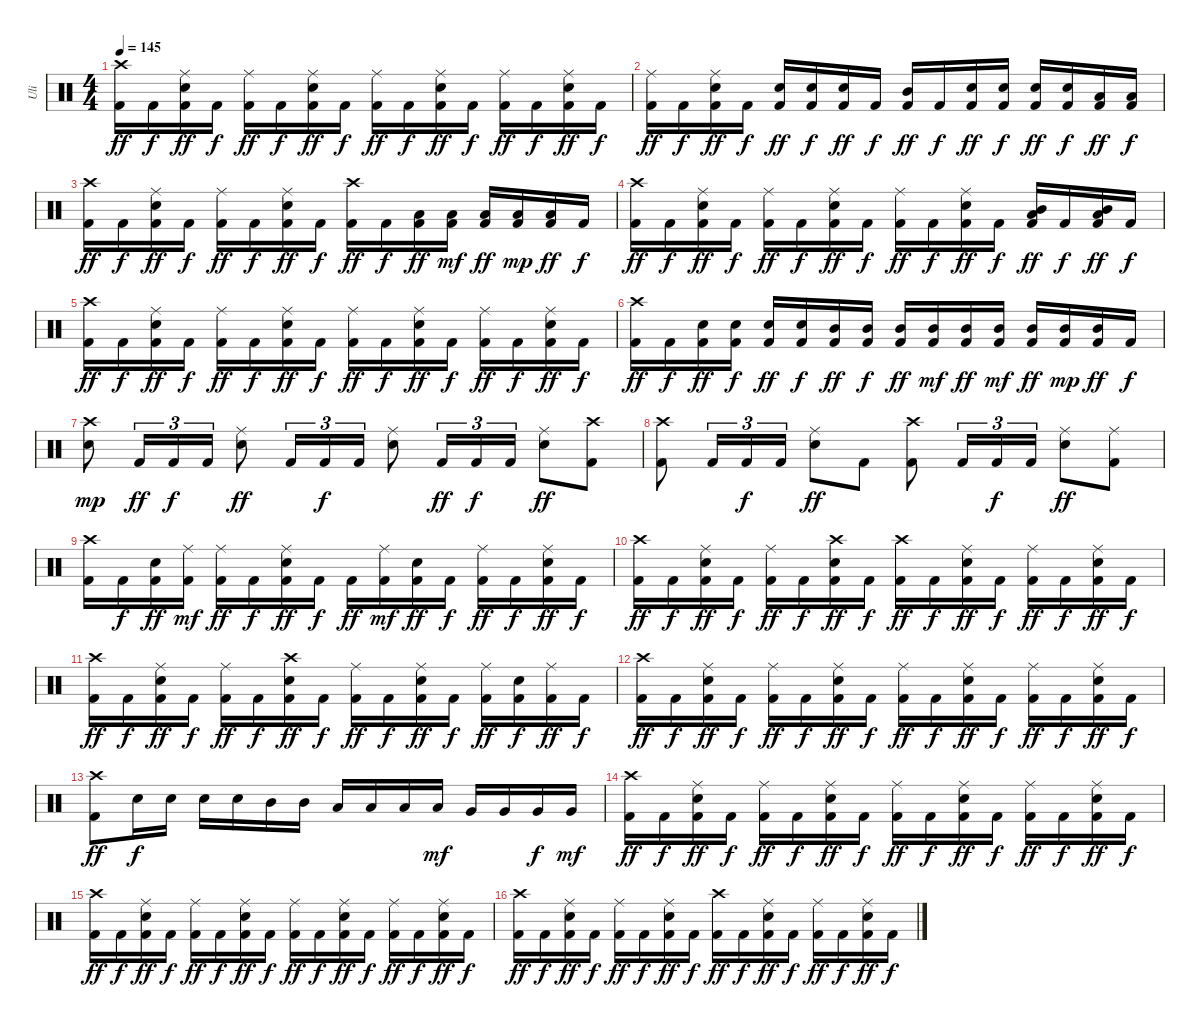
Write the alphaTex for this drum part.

\track ("Uli" "Uli") {instrument percussion}
\staff {score}
\articulation defaults
\ts (4 4)
\tempo 145
\clef neutral
\ks c
("Crash high (hit)" "Kick (hit) 2").16{dy ff} "Kick (hit) 2".16{dy f} ("Ride (middle)" "Electric Snare (hit)" "Kick (hit) 2").16{dy ff} "Kick (hit) 2".16{dy f} ("Ride (middle)" "Kick (hit) 2").16{dy ff} "Kick (hit) 2".16{dy f} ("Ride (middle)" "Electric Snare (hit)" "Kick (hit) 2").16{dy ff} "Kick (hit) 2".16{dy f} ("Ride (middle)" "Kick (hit) 2").16{dy ff} "Kick (hit) 2".16{dy f} ("Ride (middle)" "Electric Snare (hit)" "Kick (hit) 2").16{dy ff} "Kick (hit) 2".16{dy f} ("Ride (middle)" "Kick (hit) 2").16{dy ff} "Kick (hit) 2".16{dy f} ("Ride (middle)" "Electric Snare (hit)" "Kick (hit) 2").16{dy ff} "Kick (hit) 2".16{dy f} |
("Ride (middle)" "Kick (hit) 2").16{dy ff} "Kick (hit) 2".16{dy f} ("Ride (middle)" "Electric Snare (hit)" "Kick (hit) 2").16{dy ff} "Kick (hit) 2".16{dy f} ("Electric Snare (hit)" "Kick (hit) 2").16{dy ff} ("Electric Snare (hit)" "Kick (hit) 2").16{dy f} ("Electric Snare (hit)" "Kick (hit) 2").16{dy ff} "Kick (hit) 2".16{dy f} ("Mid Tom (hit)" "Kick (hit) 2").16{dy ff} "Kick (hit) 2".16{dy f} ("Electric Snare (hit)" "Kick (hit) 2").16{dy ff} ("Electric Snare (hit)" "Kick (hit) 2").16{dy f} ("Electric Snare (hit)" "Kick (hit) 2").16{dy ff} ("Electric Snare (hit)" "Kick (hit) 2").16{dy f} ("Low Tom (hit)" "Kick (hit) 2").16{dy ff} ("Low Tom (hit)" "Kick (hit) 2").16{dy f} |
("Crash high (hit)" "Kick (hit) 2").16{dy ff} "Kick (hit) 2".16{dy f} ("Ride (middle)" "Electric Snare (hit)" "Kick (hit) 2").16{dy ff} "Kick (hit) 2".16{dy f} ("Ride (middle)" "Kick (hit) 2").16{dy ff} "Kick (hit) 2".16{dy f} ("Ride (middle)" "Electric Snare (hit)" "Kick (hit) 2").16{dy ff} "Kick (hit) 2".16{dy f} ("Crash high (hit)" "Kick (hit) 2").16{dy ff} "Kick (hit) 2".16{dy f} ("Low Tom (hit)" "Kick (hit) 2").16{dy ff} ("Low Tom (hit)" "Kick (hit) 2").16{dy mf} ("Low Tom (hit)" "Kick (hit) 2").16{dy ff} ("Low Tom (hit)" "Kick (hit) 2").16{dy mp} ("Low Tom (hit)" "Kick (hit) 2").16{dy ff} "Kick (hit) 2".16{dy f} |
("Crash high (hit)" "Kick (hit) 2").16{dy ff} "Kick (hit) 2".16{dy f} ("Ride (middle)" "Electric Snare (hit)" "Kick (hit) 2").16{dy ff} "Kick (hit) 2".16{dy f} ("Ride (middle)" "Kick (hit) 2").16{dy ff} "Kick (hit) 2".16{dy f} ("Ride (middle)" "Electric Snare (hit)" "Kick (hit) 2").16{dy ff} "Kick (hit) 2".16{dy f} ("Ride (middle)" "Kick (hit) 2").16{dy ff} "Kick (hit) 2".16{dy f} ("Ride (middle)" "Electric Snare (hit)" "Kick (hit) 2").16{dy ff} "Kick (hit) 2".16{dy f} ("Low Tom (hit)" "Kick (hit) 2" "Mid Tom (hit)").16{dy ff} "Kick (hit) 2".16{dy f} ("Low Tom (hit)" "Kick (hit) 2" "Mid Tom (hit)").16{dy ff} "Kick (hit) 2".16{dy f} |
("Crash high (hit)" "Kick (hit) 2").16{dy ff} "Kick (hit) 2".16{dy f} ("Ride (middle)" "Electric Snare (hit)" "Kick (hit) 2").16{dy ff} "Kick (hit) 2".16{dy f} ("Ride (middle)" "Kick (hit) 2").16{dy ff} "Kick (hit) 2".16{dy f} ("Ride (middle)" "Electric Snare (hit)" "Kick (hit) 2").16{dy ff} "Kick (hit) 2".16{dy f} ("Ride (middle)" "Kick (hit) 2").16{dy ff} "Kick (hit) 2".16{dy f} ("Ride (middle)" "Electric Snare (hit)" "Kick (hit) 2").16{dy ff} "Kick (hit) 2".16{dy f} ("Ride (middle)" "Kick (hit) 2").16{dy ff} "Kick (hit) 2".16{dy f} ("Ride (middle)" "Electric Snare (hit)" "Kick (hit) 2").16{dy ff} "Kick (hit) 2".16{dy f} |
("Crash high (hit)" "Kick (hit) 2").16{dy ff} "Kick (hit) 2".16{dy f} ("Electric Snare (hit)" "Kick (hit) 2").16{dy ff} ("Electric Snare (hit)" "Kick (hit) 2").16{dy f} ("Electric Snare (hit)" "Kick (hit) 2").16{dy ff} ("Electric Snare (hit)" "Kick (hit) 2").16{dy f} ("Mid Tom (hit)" "Kick (hit) 2").16{dy ff} ("Mid Tom (hit)" "Kick (hit) 2").16{dy f} ("Mid Tom (hit)" "Kick (hit) 2").16{dy ff} ("Mid Tom (hit)" "Kick (hit) 2").16{dy mf} ("Mid Tom (hit)" "Kick (hit) 2").16{dy ff} ("Mid Tom (hit)" "Kick (hit) 2").16{dy mf} ("Mid Tom (hit)" "Kick (hit) 2").16{dy ff} ("Mid Tom (hit)" "Kick (hit) 2").16{dy mp} ("Mid Tom (hit)" "Kick (hit) 2").16{dy ff} "Kick (hit) 2".16{dy f} |
("Crash high (hit)" "Electric Snare (hit)").8{dy mp} "Kick (hit) 2".16{tu (3 2) dy ff} "Kick (hit) 2".16{tu (3 2) dy f} "Kick (hit) 2".16{tu (3 2)} ("Ride (middle)" "Electric Snare (hit)").8{dy ff} "Kick (hit) 2".16{tu (3 2)} "Kick (hit) 2".16{tu (3 2) dy f} "Kick (hit) 2".16{tu (3 2)} ("Ride (middle)" "Electric Snare (hit)").8 "Kick (hit) 2".16{tu (3 2) dy ff} "Kick (hit) 2".16{tu (3 2) dy f} "Kick (hit) 2".16{tu (3 2)} ("Ride (middle)" "Electric Snare (hit)").8{dy ff} ("Crash high (hit)" "Kick (hit) 2").8 |
("Crash high (hit)" "Kick (hit) 2").8 "Kick (hit) 2".16{tu (3 2)} "Kick (hit) 2".16{tu (3 2) dy f} "Kick (hit) 2".16{tu (3 2)} ("Ride (middle)" "Electric Snare (hit)").8{dy ff} "Kick (hit) 2".8 ("Crash high (hit)" "Kick (hit) 2").8 "Kick (hit) 2".16{tu (3 2)} "Kick (hit) 2".16{tu (3 2) dy f} "Kick (hit) 2".16{tu (3 2)} ("Ride (middle)" "Electric Snare (hit)").8{dy ff} ("Ride (middle)" "Kick (hit) 2").8 |
("Crash high (hit)" "Kick (hit) 2").16 "Kick (hit) 2".16{dy f} ("Electric Snare (hit)" "Kick (hit) 2").16{dy ff} ("Ride (middle)" "Kick (hit) 2").16{dy mf} ("Ride (middle)" "Kick (hit) 2").16{dy ff} "Kick (hit) 2".16{dy f} ("Ride (middle)" "Electric Snare (hit)" "Kick (hit) 2").16{dy ff} "Kick (hit) 2".16{dy f} "Kick (hit) 2".16{dy ff} ("Ride (middle)" "Kick (hit) 2").16{dy mf} ("Electric Snare (hit)" "Kick (hit) 2").16{dy ff} "Kick (hit) 2".16{dy f} ("Ride (middle)" "Kick (hit) 2").16{dy ff} "Kick (hit) 2".16{dy f} ("Ride (middle)" "Electric Snare (hit)" "Kick (hit) 2").16{dy ff} "Kick (hit) 2".16{dy f} |
("Crash high (hit)" "Kick (hit) 2").16{dy ff} "Kick (hit) 2".16{dy f} ("Ride (middle)" "Electric Snare (hit)" "Kick (hit) 2").16{dy ff} "Kick (hit) 2".16{dy f} ("Ride (middle)" "Kick (hit) 2").16{dy ff} "Kick (hit) 2".16{dy f} ("Crash high (hit)" "Electric Snare (hit)" "Kick (hit) 2").16{dy ff} "Kick (hit) 2".16{dy f} ("Crash high (hit)" "Kick (hit) 2").16{dy ff} "Kick (hit) 2".16{dy f} ("Ride (middle)" "Electric Snare (hit)" "Kick (hit) 2").16{dy ff} "Kick (hit) 2".16{dy f} ("Ride (middle)" "Kick (hit) 2").16{dy ff} "Kick (hit) 2".16{dy f} ("Ride (middle)" "Electric Snare (hit)" "Kick (hit) 2").16{dy ff} "Kick (hit) 2".16{dy f} |
("Crash high (hit)" "Kick (hit) 2").16{dy ff} "Kick (hit) 2".16{dy f} ("Ride (middle)" "Electric Snare (hit)" "Kick (hit) 2").16{dy ff} "Kick (hit) 2".16{dy f} ("Ride (middle)" "Kick (hit) 2").16{dy ff} "Kick (hit) 2".16{dy f} ("Crash high (hit)" "Electric Snare (hit)" "Kick (hit) 2").16{dy ff} "Kick (hit) 2".16{dy f} ("Ride (middle)" "Kick (hit) 2").16{dy ff} "Kick (hit) 2".16{dy f} ("Ride (middle)" "Electric Snare (hit)" "Kick (hit) 2").16{dy ff} "Kick (hit) 2".16{dy f} ("Ride (middle)" "Kick (hit) 2").16{dy ff} ("Electric Snare (hit)" "Kick (hit) 2").16{dy f} ("Ride (middle)" "Kick (hit) 2").16{dy ff} "Kick (hit) 2".16{dy f} |
("Crash high (hit)" "Kick (hit) 2").16{dy ff} "Kick (hit) 2".16{dy f} ("Ride (middle)" "Electric Snare (hit)" "Kick (hit) 2").16{dy ff} "Kick (hit) 2".16{dy f} ("Ride (middle)" "Kick (hit) 2").16{dy ff} "Kick (hit) 2".16{dy f} ("Ride (middle)" "Electric Snare (hit)" "Kick (hit) 2").16{dy ff} "Kick (hit) 2".16{dy f} ("Ride (middle)" "Kick (hit) 2").16{dy ff} "Kick (hit) 2".16{dy f} ("Ride (middle)" "Electric Snare (hit)" "Kick (hit) 2").16{dy ff} "Kick (hit) 2".16{dy f} ("Ride (middle)" "Kick (hit) 2").16{dy ff} "Kick (hit) 2".16{dy f} ("Ride (middle)" "Electric Snare (hit)" "Kick (hit) 2").16{dy ff} "Kick (hit) 2".16{dy f} |
("Crash high (hit)" "Kick (hit) 2").8{dy ff} "Electric Snare (hit)".16{dy f} "Electric Snare (hit)".16 "Electric Snare (hit)".16 "Electric Snare (hit)".16 "Mid Tom (hit)".16 "Mid Tom (hit)".16 "Low Tom (hit)".16 "Low Tom (hit)".16 "Low Tom (hit)".16 "Low Tom (hit)".16{dy mf} "Very Low Tom (hit)".16 "Very Low Tom (hit)".16 "Very Low Tom (hit)".16{dy f} "Very Low Tom (hit)".16{dy mf} |
("Crash high (hit)" "Kick (hit) 2").16{dy ff} "Kick (hit) 2".16{dy f} ("Ride (middle)" "Electric Snare (hit)" "Kick (hit) 2").16{dy ff} "Kick (hit) 2".16{dy f} ("Ride (middle)" "Kick (hit) 2").16{dy ff} "Kick (hit) 2".16{dy f} ("Ride (middle)" "Electric Snare (hit)" "Kick (hit) 2").16{dy ff} "Kick (hit) 2".16{dy f} ("Ride (middle)" "Kick (hit) 2").16{dy ff} "Kick (hit) 2".16{dy f} ("Ride (middle)" "Electric Snare (hit)" "Kick (hit) 2").16{dy ff} "Kick (hit) 2".16{dy f} ("Ride (middle)" "Kick (hit) 2").16{dy ff} "Kick (hit) 2".16{dy f} ("Ride (middle)" "Electric Snare (hit)" "Kick (hit) 2").16{dy ff} "Kick (hit) 2".16{dy f} |
("Crash high (hit)" "Kick (hit) 2").16{dy ff} "Kick (hit) 2".16{dy f} ("Ride (middle)" "Electric Snare (hit)" "Kick (hit) 2").16{dy ff} "Kick (hit) 2".16{dy f} ("Ride (middle)" "Kick (hit) 2").16{dy ff} "Kick (hit) 2".16{dy f} ("Ride (middle)" "Electric Snare (hit)" "Kick (hit) 2").16{dy ff} "Kick (hit) 2".16{dy f} ("Ride (middle)" "Kick (hit) 2").16{dy ff} "Kick (hit) 2".16{dy f} ("Ride (middle)" "Electric Snare (hit)" "Kick (hit) 2").16{dy ff} "Kick (hit) 2".16{dy f} ("Ride (middle)" "Kick (hit) 2").16{dy ff} "Kick (hit) 2".16{dy f} ("Ride (middle)" "Electric Snare (hit)" "Kick (hit) 2").16{dy ff} "Kick (hit) 2".16{dy f} |
("Crash high (hit)" "Kick (hit) 2").16{dy ff} "Kick (hit) 2".16{dy f} ("Ride (middle)" "Electric Snare (hit)" "Kick (hit) 2").16{dy ff} "Kick (hit) 2".16{dy f} ("Ride (middle)" "Kick (hit) 2").16{dy ff} "Kick (hit) 2".16{dy f} ("Ride (middle)" "Electric Snare (hit)" "Kick (hit) 2").16{dy ff} "Kick (hit) 2".16{dy f} ("Crash high (hit)" "Kick (hit) 2").16{dy ff} "Kick (hit) 2".16{dy f} ("Ride (middle)" "Electric Snare (hit)" "Kick (hit) 2").16{dy ff} "Kick (hit) 2".16{dy f} ("Ride (middle)" "Kick (hit) 2").16{dy ff} "Kick (hit) 2".16{dy f} ("Ride (middle)" "Electric Snare (hit)" "Kick (hit) 2").16{dy ff} "Kick (hit) 2".16{dy f}
